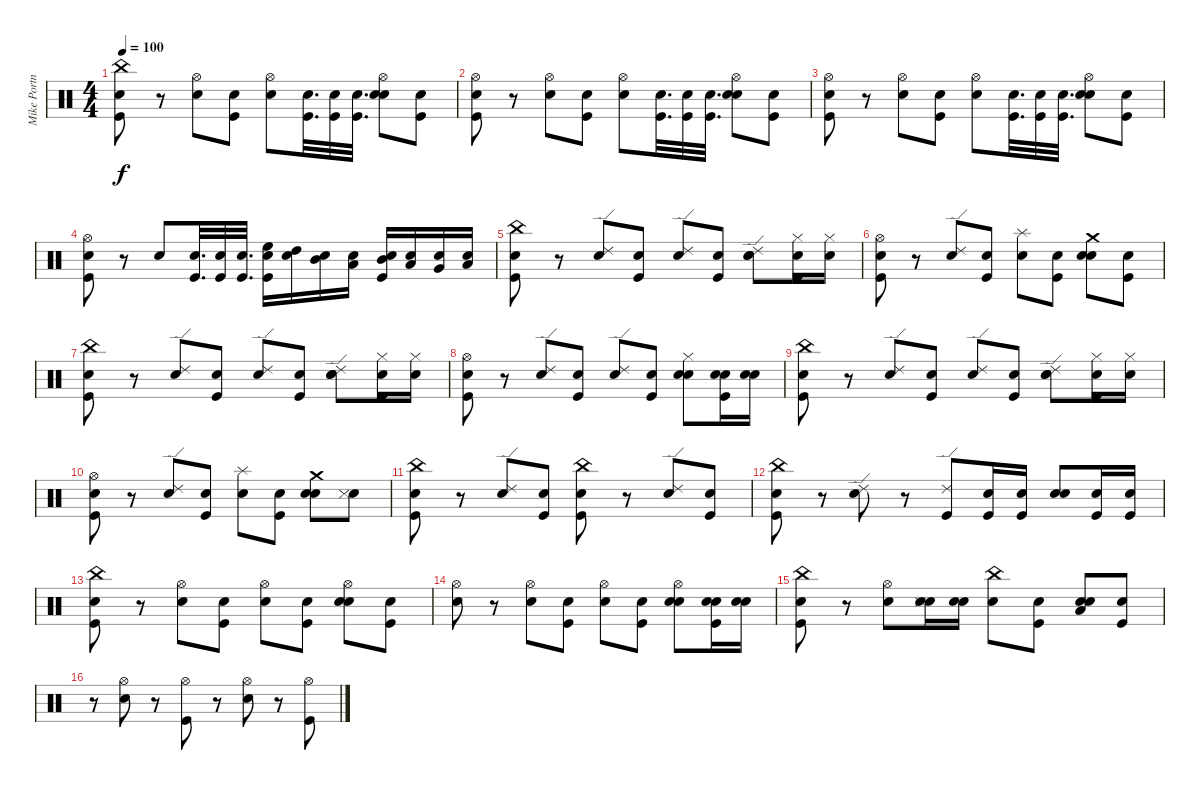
\track ("Mike Portnoy" "Mike Portn") {instrument percussion}
\staff {score}
\articulation defaults
\ts (4 4)
\tempo 100
\clef neutral
\ks c
("Snare (hit)" "Kick (hit)" "China (hit)").8{dy f} r.8 ("Snare (hit) 2" "Hi-Hat (open)").8 ("Snare (hit)" "Kick (hit)").8 ("Snare (hit)" "Hi-Hat (open)").8 ("Snare (hit)" "Kick (hit)").32{d} ("Snare (hit)" "Kick (hit)").32 ("Snare (hit)" "Kick (hit)").32{d} ("Snare (hit)" "Snare (hit) 2" "Hi-Hat (open)").8 ("Snare (hit)" "Kick (hit)").8 |
("Snare (hit)" "Kick (hit)" "Hi-Hat (open)").8 r.8 ("Snare (hit) 2" "Hi-Hat (open)").8 ("Snare (hit)" "Kick (hit)").8 ("Snare (hit)" "Hi-Hat (open)").8 ("Snare (hit)" "Kick (hit)").32{d} ("Snare (hit)" "Kick (hit)").32 ("Snare (hit)" "Kick (hit)").32{d} ("Snare (hit)" "Snare (hit) 2" "Hi-Hat (open)").8 ("Snare (hit)" "Kick (hit)").8 |
("Snare (hit)" "Kick (hit)" "Hi-Hat (open)").8 r.8 ("Snare (hit) 2" "Hi-Hat (open)").8 ("Snare (hit)" "Kick (hit)").8 ("Snare (hit)" "Hi-Hat (open)").8 ("Snare (hit)" "Kick (hit)").32{d} ("Snare (hit)" "Kick (hit)").32 ("Snare (hit)" "Kick (hit)").32{d} ("Snare (hit)" "Snare (hit) 2" "Hi-Hat (open)").8 ("Snare (hit)" "Kick (hit)").8 |
("Snare (hit)" "Kick (hit)" "Hi-Hat (open)").8 r.8 "Snare (hit) 2".8 ("Snare (hit)" "Kick (hit)").32{d} ("Snare (hit)" "Kick (hit)").32 ("Snare (hit)" "Kick (hit)").32{d} ("Snare (hit)" "Kick (hit)" "High Floor Tom (hit)").16 ("Snare (hit)" "High Tom (hit)").16 ("Snare (hit)" "Mid Tom (hit)").16 ("Snare (hit)" "Low Tom (hit)").16 ("Snare (hit)" "Kick (hit)" "Mid Tom (hit)").16 ("Snare (hit)" "Low Tom (hit)").16 ("Snare (hit)" "Very Low Tom (hit)").16 ("Snare (hit)" "Low Floor Tom (hit)").16 |
("Snare (hit)" "Kick (hit)" "China (hit)").8 r.8 ("Snare (hit) 2" "Ride (edge) 2").8 ("Snare (hit)" "Kick (hit)").8 ("Snare (hit)" "Ride (edge) 2").8 ("Snare (hit)" "Kick (hit)").8 ("Snare (hit)" "Snare (hit) 2" "Ride (edge) 2").8 ("Snare (hit)" "Kick (hit)" "Hi-Hat (closed)").16 ("Snare (hit)" "Hi-Hat (closed)").16 |
("Snare (hit)" "Kick (hit)" "Hi-Hat (open)").8 r.8 ("Snare (hit) 2" "Ride (edge) 2").8 ("Snare (hit)" "Kick (hit)").8 ("Snare (hit)" "Splash (hit)").8 ("Snare (hit)" "Kick (hit)").8 ("Snare (hit)" "Snare (hit) 2" "Crash medium (hit)").8 ("Snare (hit)" "Kick (hit)").8 |
("Snare (hit)" "Kick (hit)" "China (hit)").8 r.8 ("Snare (hit) 2" "Ride (edge) 2").8 ("Snare (hit)" "Kick (hit)").8 ("Snare (hit)" "Ride (edge) 2").8 ("Snare (hit)" "Kick (hit)").8 ("Snare (hit)" "Snare (hit) 2" "Ride (edge) 2").8 ("Snare (hit)" "Kick (hit)" "Hi-Hat (closed)").16 ("Snare (hit)" "Hi-Hat (closed)").16 |
("Snare (hit)" "Kick (hit)" "Hi-Hat (open)").8 r.8 ("Snare (hit) 2" "Ride (edge) 2").8 ("Snare (hit)" "Kick (hit)").8 ("Snare (hit)" "Ride (edge) 2").8 ("Snare (hit)" "Kick (hit)").8 ("Snare (hit)" "Snare (hit) 2" "Hi-Hat (closed)").8 ("Snare (hit)" "Kick (hit)" "Snare (hit) 2").16 ("Snare (hit)" "Snare (hit) 2").16 |
("Snare (hit)" "Kick (hit)" "China (hit)").8 r.8 ("Snare (hit) 2" "Ride (edge) 2").8 ("Snare (hit)" "Kick (hit)").8 ("Snare (hit)" "Ride (edge) 2").8 ("Snare (hit)" "Kick (hit)").8 ("Snare (hit)" "Snare (hit) 2" "Ride (edge) 2").8 ("Snare (hit)" "Kick (hit)" "Hi-Hat (closed)").16 ("Snare (hit)" "Hi-Hat (closed)").16 |
("Snare (hit)" "Kick (hit)" "Hi-Hat (open)").8 r.8 ("Snare (hit) 2" "Ride (edge) 2").8 ("Snare (hit)" "Kick (hit)").8 ("Snare (hit)" "Splash (hit)").8 ("Snare (hit)" "Kick (hit)").8 ("Snare (hit)" "Snare (hit) 2" "Crash medium (hit)").8 ("Snare (hit)" "Metronome (hit)").8 |
("Snare (hit)" "Kick (hit)" "China (hit)").8 r.8 ("Snare (hit) 2" "Ride (edge) 2").8 ("Snare (hit)" "Kick (hit)").8 ("Snare (hit)" "Kick (hit)" "China (hit)").8 r.8 ("Snare (hit) 2" "Ride (edge) 2").8 ("Snare (hit)" "Kick (hit)").8 |
("Snare (hit)" "Kick (hit)" "China (hit)").8 r.8 ("Snare (hit) 2" "Ride (edge) 2").8 r.8 ("Kick (hit)" "Ride (edge) 2").8 ("Snare (hit)" "Kick (hit)").16 ("Snare (hit)" "Kick (hit)").16 ("Snare (hit)" "Snare (hit) 2").8 ("Snare (hit)" "Kick (hit)").16 ("Snare (hit)" "Kick (hit)").16 |
("Snare (hit)" "Kick (hit)" "China (hit)").8 r.8 ("Snare (hit) 2" "Hi-Hat (open)").8 ("Snare (hit)" "Kick (hit)").8 ("Snare (hit)" "Hi-Hat (open)").8 ("Snare (hit)" "Kick (hit)").8 ("Snare (hit)" "Snare (hit) 2" "Hi-Hat (open)").8 ("Snare (hit)" "Kick (hit)").8 |
("Snare (hit)" "Hi-Hat (open)").8 r.8 ("Snare (hit) 2" "Hi-Hat (open)").8 ("Snare (hit)" "Kick (hit)").8 ("Snare (hit)" "Hi-Hat (open)").8 ("Snare (hit)" "Kick (hit)").8 ("Snare (hit)" "Snare (hit) 2" "Hi-Hat (open)").8 ("Snare (hit)" "Kick (hit)" "Snare (hit) 2").16 ("Snare (hit)" "Snare (hit) 2").16 |
("Snare (hit)" "Kick (hit)" "China (hit)").8 r.8 ("Snare (hit) 2" "Hi-Hat (open)").8 ("Snare (hit)" "Metronome (hit)" "Snare (hit) 2").16 ("Snare (hit)" "Snare (hit) 2").16 ("Snare (hit)" "China (hit)").8 ("Snare (hit)" "Kick (hit)").8 ("Snare (hit)" "Snare (hit) 2" "Low Tom (hit)").8 ("Snare (hit)" "Kick (hit)").8 |
r.8 ("Snare (hit) 2" "Hi-Hat (open)").8 r.8 ("Kick (hit)" "Hi-Hat (open)").8 r.8 ("Snare (hit) 2" "Hi-Hat (open)").8 r.8 ("Kick (hit)" "Hi-Hat (open)").8
